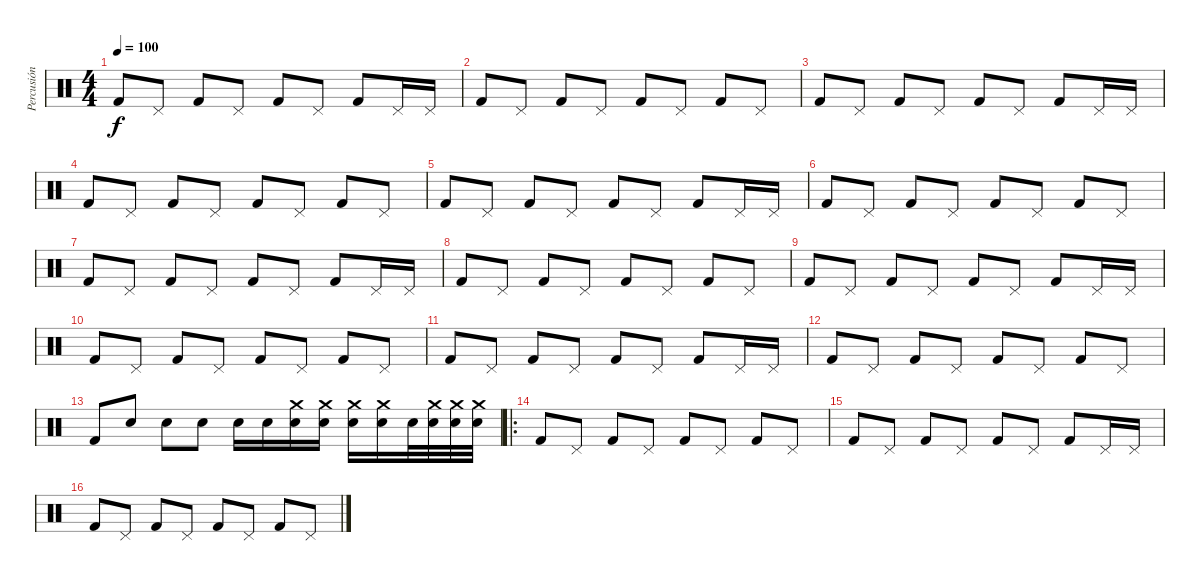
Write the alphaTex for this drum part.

\track ("Percusión" "Percusión") {instrument percussion}
\staff {score}
\articulation defaults
\ts (4 4)
\tempo 100
\clef neutral
\ks c "Kick (hit) 2".8{dy f} "Pedal Hi-Hat (hit)".8 "Kick (hit) 2".8 "Pedal Hi-Hat (hit)".8 "Kick (hit) 2".8 "Pedal Hi-Hat (hit)".8 "Kick (hit) 2".8 "Pedal Hi-Hat (hit)".16 "Pedal Hi-Hat (hit)".16
|
"Kick (hit) 2".8 "Pedal Hi-Hat (hit)".8 "Kick (hit) 2".8 "Pedal Hi-Hat (hit)".8 "Kick (hit) 2".8 "Pedal Hi-Hat (hit)".8 "Kick (hit) 2".8 "Pedal Hi-Hat (hit)".8 |
"Kick (hit) 2".8 "Pedal Hi-Hat (hit)".8 "Kick (hit) 2".8 "Pedal Hi-Hat (hit)".8 "Kick (hit) 2".8 "Pedal Hi-Hat (hit)".8 "Kick (hit) 2".8 "Pedal Hi-Hat (hit)".16 "Pedal Hi-Hat (hit)".16 |
"Kick (hit) 2".8 "Pedal Hi-Hat (hit)".8 "Kick (hit) 2".8 "Pedal Hi-Hat (hit)".8 "Kick (hit) 2".8 "Pedal Hi-Hat (hit)".8 "Kick (hit) 2".8 "Pedal Hi-Hat (hit)".8 |
"Kick (hit) 2".8 "Pedal Hi-Hat (hit)".8 "Kick (hit) 2".8 "Pedal Hi-Hat (hit)".8 "Kick (hit) 2".8 "Pedal Hi-Hat (hit)".8 "Kick (hit) 2".8 "Pedal Hi-Hat (hit)".16 "Pedal Hi-Hat (hit)".16 |
"Kick (hit) 2".8 "Pedal Hi-Hat (hit)".8 "Kick (hit) 2".8 "Pedal Hi-Hat (hit)".8 "Kick (hit) 2".8 "Pedal Hi-Hat (hit)".8 "Kick (hit) 2".8 "Pedal Hi-Hat (hit)".8 |
"Kick (hit) 2".8 "Pedal Hi-Hat (hit)".8 "Kick (hit) 2".8 "Pedal Hi-Hat (hit)".8 "Kick (hit) 2".8 "Pedal Hi-Hat (hit)".8 "Kick (hit) 2".8 "Pedal Hi-Hat (hit)".16 "Pedal Hi-Hat (hit)".16 |
"Kick (hit) 2".8 "Pedal Hi-Hat (hit)".8 "Kick (hit) 2".8 "Pedal Hi-Hat (hit)".8 "Kick (hit) 2".8 "Pedal Hi-Hat (hit)".8 "Kick (hit) 2".8 "Pedal Hi-Hat (hit)".8 |
"Kick (hit) 2".8 "Pedal Hi-Hat (hit)".8 "Kick (hit) 2".8 "Pedal Hi-Hat (hit)".8 "Kick (hit) 2".8 "Pedal Hi-Hat (hit)".8 "Kick (hit) 2".8 "Pedal Hi-Hat (hit)".16 "Pedal Hi-Hat (hit)".16 |
"Kick (hit) 2".8 "Pedal Hi-Hat (hit)".8 "Kick (hit) 2".8 "Pedal Hi-Hat (hit)".8 "Kick (hit) 2".8 "Pedal Hi-Hat (hit)".8 "Kick (hit) 2".8 "Pedal Hi-Hat (hit)".8 |
"Kick (hit) 2".8 "Pedal Hi-Hat (hit)".8 "Kick (hit) 2".8 "Pedal Hi-Hat (hit)".8 "Kick (hit) 2".8 "Pedal Hi-Hat (hit)".8 "Kick (hit) 2".8 "Pedal Hi-Hat (hit)".16 "Pedal Hi-Hat (hit)".16 |
"Kick (hit) 2".8 "Pedal Hi-Hat (hit)".8 "Kick (hit) 2".8 "Pedal Hi-Hat (hit)".8 "Kick (hit) 2".8 "Pedal Hi-Hat (hit)".8 "Kick (hit) 2".8 "Pedal Hi-Hat (hit)".8 |
"Kick (hit) 2".8 "Snare (hit) 2".8 "Snare (hit) 2".8 "Snare (hit) 2".8 "Snare (hit) 2".16 "Snare (hit) 2".16 ("Snare (hit) 2" "Crash medium (hit)").16 ("Snare (hit) 2" "Crash medium (hit)").16 ("Snare (hit) 2" "Crash medium (hit)").16 ("Snare (hit) 2" "Crash medium (hit)").16 "Snare (hit) 2".32 ("Snare (hit) 2" "Crash medium (hit)").32 ("Snare (hit) 2" "Crash medium (hit)").32 ("Snare (hit) 2" "Crash medium (hit)").32 |
\ro "Kick (hit) 2".8 "Pedal Hi-Hat (hit)".8 "Kick (hit) 2".8 "Pedal Hi-Hat (hit)".8 "Kick (hit) 2".8 "Pedal Hi-Hat (hit)".8 "Kick (hit) 2".8 "Pedal Hi-Hat (hit)".8
|
"Kick (hit) 2".8 "Pedal Hi-Hat (hit)".8 "Kick (hit) 2".8 "Pedal Hi-Hat (hit)".8 "Kick (hit) 2".8 "Pedal Hi-Hat (hit)".8 "Kick (hit) 2".8 "Pedal Hi-Hat (hit)".16 "Pedal Hi-Hat (hit)".16 |
"Kick (hit) 2".8 "Pedal Hi-Hat (hit)".8 "Kick (hit) 2".8 "Pedal Hi-Hat (hit)".8 "Kick (hit) 2".8 "Pedal Hi-Hat (hit)".8 "Kick (hit) 2".8 "Pedal Hi-Hat (hit)".8
